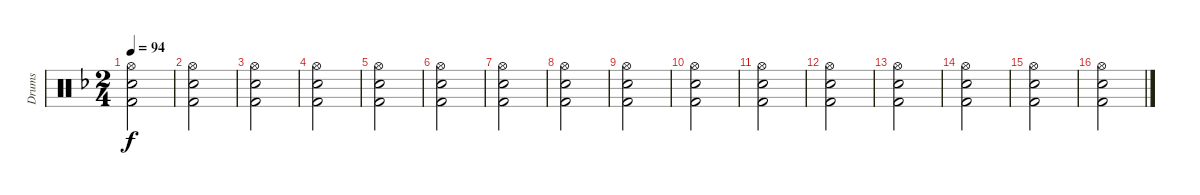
\track ("Drums" "Drums") {instrument percussion}
\staff {score}
\articulation defaults
\ts (2 4)
\tempo 94
\clef neutral
\ks dminor
("Hi-Hat (open)" "Snare (hit) 2" "Kick (hit) 2").2{dy f} |
("Hi-Hat (open)" "Snare (hit) 2" "Kick (hit) 2").2 |
("Hi-Hat (open)" "Snare (hit) 2" "Kick (hit) 2").2 |
("Hi-Hat (open)" "Snare (hit) 2" "Kick (hit) 2").2 |
("Hi-Hat (open)" "Snare (hit) 2" "Kick (hit) 2").2 |
("Hi-Hat (open)" "Snare (hit) 2" "Kick (hit) 2").2 |
("Hi-Hat (open)" "Snare (hit) 2" "Kick (hit) 2").2 |
("Hi-Hat (open)" "Snare (hit) 2" "Kick (hit) 2").2 |
("Hi-Hat (open)" "Snare (hit) 2" "Kick (hit) 2").2 |
("Hi-Hat (open)" "Snare (hit) 2" "Kick (hit) 2").2 |
("Hi-Hat (open)" "Snare (hit) 2" "Kick (hit) 2").2 |
("Hi-Hat (open)" "Snare (hit) 2" "Kick (hit) 2").2 |
("Hi-Hat (open)" "Snare (hit) 2" "Kick (hit) 2").2 |
("Hi-Hat (open)" "Snare (hit) 2" "Kick (hit) 2").2 |
("Hi-Hat (open)" "Snare (hit) 2" "Kick (hit) 2").2 |
("Hi-Hat (open)" "Snare (hit) 2" "Kick (hit) 2").2
